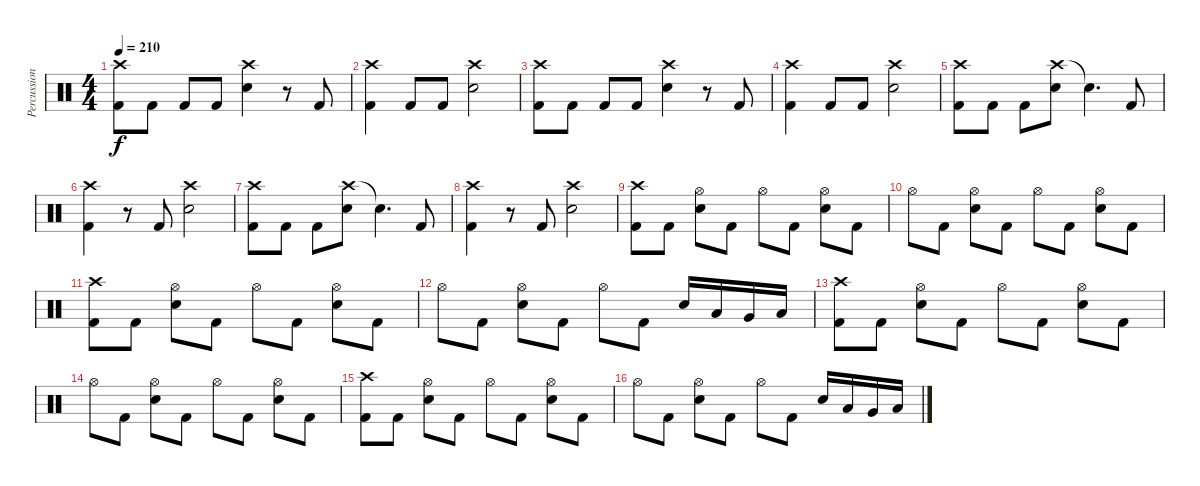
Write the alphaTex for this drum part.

\track ("Percussion" "Percussion") {instrument percussion}
\staff {score}
\articulation defaults
\ts (4 4)
\tempo 210
\clef neutral
\ks c
("Crash high (hit)" "Kick (hit) 2").8{dy f} "Kick (hit) 2".8 "Kick (hit) 2".8 "Kick (hit) 2".8 ("Crash high (hit)" "Electric Snare (hit)").4 r.8 "Kick (hit) 2".8 |
("Crash high (hit)" "Kick (hit) 2").4 "Kick (hit) 2".8 "Kick (hit) 2".8 ("Crash high (hit)" "Electric Snare (hit)").2 |
("Crash high (hit)" "Kick (hit) 2").8 "Kick (hit) 2".8 "Kick (hit) 2".8 "Kick (hit) 2".8 ("Crash high (hit)" "Electric Snare (hit)").4 r.8 "Kick (hit) 2".8 |
("Crash high (hit)" "Kick (hit) 2").4 "Kick (hit) 2".8 "Kick (hit) 2".8 ("Crash high (hit)" "Electric Snare (hit)").2 |
("Crash high (hit)" "Kick (hit) 2").8 "Kick (hit) 2".8 "Kick (hit) 2".8 ("Crash high (hit)" "Electric Snare (hit)").8 "Snare (hit)"{t}.4{d} "Kick (hit) 2".8 |
("Crash high (hit)" "Kick (hit) 2").4 r.8 "Kick (hit) 2".8 ("Crash high (hit)" "Electric Snare (hit)").2 |
("Crash high (hit)" "Kick (hit) 2").8 "Kick (hit) 2".8 "Kick (hit) 2".8 ("Crash high (hit)" "Electric Snare (hit)").8 "Snare (hit)"{t}.4{d} "Kick (hit) 2".8 |
("Crash high (hit)" "Kick (hit) 2").4 r.8 "Kick (hit) 2".8 ("Crash high (hit)" "Electric Snare (hit)").2 |
("Crash high (hit)" "Kick (hit) 2").8 "Kick (hit) 2".8 ("Hi-Hat (open)" "Electric Snare (hit)").8 "Kick (hit) 2".8 "Hi-Hat (open)".8 "Kick (hit) 2".8 ("Hi-Hat (open)" "Electric Snare (hit)").8 "Kick (hit) 2".8 |
"Hi-Hat (open)".8 "Kick (hit) 2".8 ("Hi-Hat (open)" "Electric Snare (hit)").8 "Kick (hit) 2".8 "Hi-Hat (open)".8 "Kick (hit) 2".8 ("Hi-Hat (open)" "Electric Snare (hit)").8 "Kick (hit) 2".8 |
("Crash high (hit)" "Kick (hit) 2").8 "Kick (hit) 2".8 ("Hi-Hat (open)" "Electric Snare (hit)").8 "Kick (hit) 2".8 "Hi-Hat (open)".8 "Kick (hit) 2".8 ("Hi-Hat (open)" "Electric Snare (hit)").8 "Kick (hit) 2".8 |
"Hi-Hat (open)".8 "Kick (hit) 2".8 ("Hi-Hat (open)" "Electric Snare (hit)").8 "Kick (hit) 2".8 "Hi-Hat (open)".8 "Kick (hit) 2".8 "Electric Snare (hit)".16 "Low Tom (hit)".16 "Very Low Tom (hit)".16 "Low Floor Tom (hit)".16 |
("Crash high (hit)" "Kick (hit) 2").8 "Kick (hit) 2".8 ("Hi-Hat (open)" "Electric Snare (hit)").8 "Kick (hit) 2".8 "Hi-Hat (open)".8 "Kick (hit) 2".8 ("Hi-Hat (open)" "Electric Snare (hit)").8 "Kick (hit) 2".8 |
"Hi-Hat (open)".8 "Kick (hit) 2".8 ("Hi-Hat (open)" "Electric Snare (hit)").8 "Kick (hit) 2".8 "Hi-Hat (open)".8 "Kick (hit) 2".8 ("Hi-Hat (open)" "Electric Snare (hit)").8 "Kick (hit) 2".8 |
("Crash high (hit)" "Kick (hit) 2").8 "Kick (hit) 2".8 ("Hi-Hat (open)" "Electric Snare (hit)").8 "Kick (hit) 2".8 "Hi-Hat (open)".8 "Kick (hit) 2".8 ("Hi-Hat (open)" "Electric Snare (hit)").8 "Kick (hit) 2".8 |
"Hi-Hat (open)".8 "Kick (hit) 2".8 ("Hi-Hat (open)" "Electric Snare (hit)").8 "Kick (hit) 2".8 "Hi-Hat (open)".8 "Kick (hit) 2".8 "Electric Snare (hit)".16 "Low Tom (hit)".16 "Very Low Tom (hit)".16 "Low Floor Tom (hit)".16
